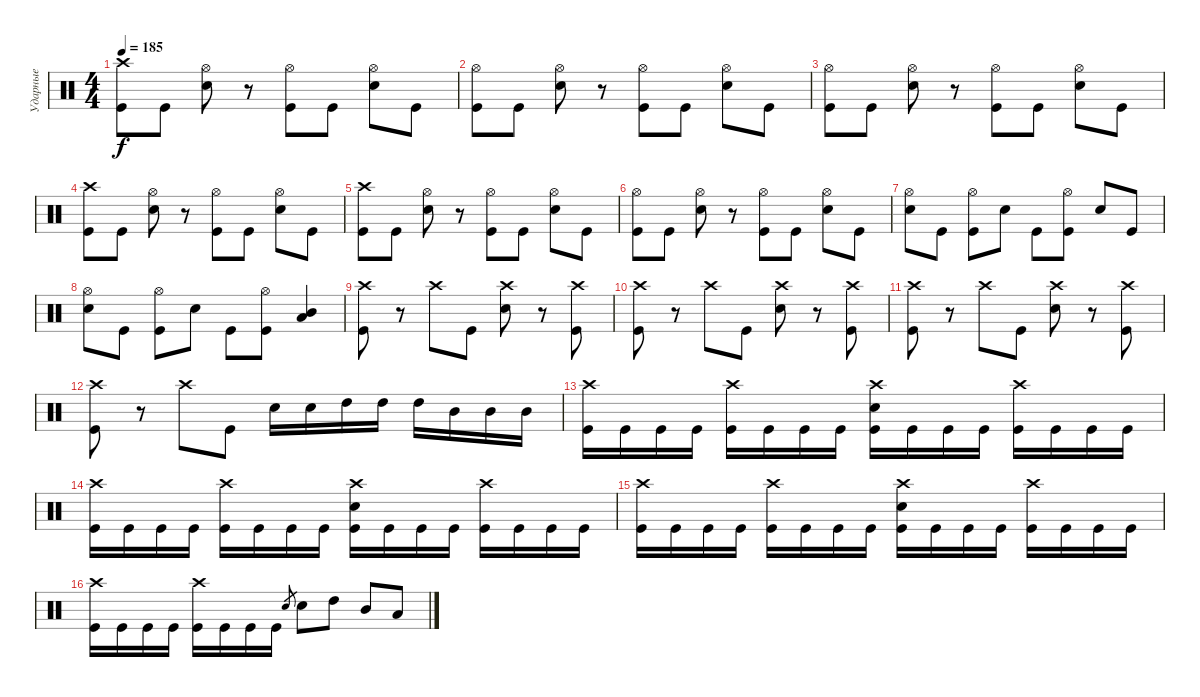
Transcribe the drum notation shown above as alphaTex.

\track ("Ударные" "Ударные") {instrument percussion}
\staff {score}
\articulation defaults
\ts (4 4)
\tempo 185
\clef neutral
\ks c
("Crash high (hit)" "Kick (hit)").8{dy f} "Kick (hit)".8 ("Hi-Hat (open)" "Snare (hit) 2").8 r.8 ("Hi-Hat (open)" "Kick (hit)").8 "Kick (hit)".8 ("Hi-Hat (open)" "Snare (hit) 2").8 "Kick (hit)".8 |
("Hi-Hat (open)" "Kick (hit)").8 "Kick (hit)".8 ("Hi-Hat (open)" "Snare (hit) 2").8 r.8 ("Hi-Hat (open)" "Kick (hit)").8 "Kick (hit)".8 ("Hi-Hat (open)" "Snare (hit) 2").8 "Kick (hit)".8 |
("Hi-Hat (open)" "Kick (hit)").8 "Kick (hit)".8 ("Hi-Hat (open)" "Snare (hit) 2").8 r.8 ("Hi-Hat (open)" "Kick (hit)").8 "Kick (hit)".8 ("Hi-Hat (open)" "Snare (hit) 2").8 "Kick (hit)".8 |
("Crash high (hit)" "Kick (hit)").8 "Kick (hit)".8 ("Hi-Hat (open)" "Snare (hit) 2").8 r.8 ("Hi-Hat (open)" "Kick (hit)").8 "Kick (hit)".8 ("Hi-Hat (open)" "Snare (hit) 2").8 "Kick (hit)".8 |
("Crash high (hit)" "Kick (hit)").8 "Kick (hit)".8 ("Hi-Hat (open)" "Snare (hit) 2").8 r.8 ("Hi-Hat (open)" "Kick (hit)").8 "Kick (hit)".8 ("Hi-Hat (open)" "Snare (hit) 2").8 "Kick (hit)".8 |
("Hi-Hat (open)" "Kick (hit)").8 "Kick (hit)".8 ("Hi-Hat (open)" "Snare (hit) 2").8 r.8 ("Hi-Hat (open)" "Kick (hit)").8 "Kick (hit)".8 ("Hi-Hat (open)" "Snare (hit) 2").8 "Kick (hit)".8 |
("Hi-Hat (open)" "Snare (hit) 2").8 "Kick (hit)".8 ("Hi-Hat (open)" "Kick (hit)").8 "Snare (hit) 2".8 "Kick (hit)".8 ("Hi-Hat (open)" "Kick (hit)").8 "Snare (hit) 2".8 "Kick (hit)".8 |
("Hi-Hat (open)" "Snare (hit) 2").8 "Kick (hit)".8 ("Hi-Hat (open)" "Kick (hit)").8 "Snare (hit) 2".8 "Kick (hit)".8 ("Hi-Hat (open)" "Kick (hit)").8 ("Low Floor Tom (hit)" "Mid Tom (hit)").4 |
("Crash high (hit)" "Kick (hit)").8 r.8 "Crash high (hit)".8 "Kick (hit)".8 ("Crash high (hit)" "Snare (hit) 2").8 r.8 ("Crash high (hit)" "Kick (hit)").8 |
("Crash high (hit)" "Kick (hit)").8 r.8 "Crash high (hit)".8 "Kick (hit)".8 ("Crash high (hit)" "Snare (hit) 2").8 r.8 ("Crash high (hit)" "Kick (hit)").8 |
("Crash high (hit)" "Kick (hit)").8 r.8 "Crash high (hit)".8 "Kick (hit)".8 ("Crash high (hit)" "Snare (hit) 2").8 r.8 ("Crash high (hit)" "Kick (hit)").8 |
("Crash high (hit)" "Kick (hit)").8 r.8 "Crash high (hit)".8 "Kick (hit)".8 "Snare (hit) 2".16 "Snare (hit) 2".16 "High Tom (hit)".16 "High Tom (hit)".16 "High Tom (hit)".16 "Mid Tom (hit)".16 "Mid Tom (hit)".16 "Mid Tom (hit)".16 |
("Kick (hit)" "Crash high (hit)").16 "Kick (hit)".16 "Kick (hit)".16 "Kick (hit)".16 ("Kick (hit)" "Crash high (hit)").16 "Kick (hit)".16 "Kick (hit)".16 "Kick (hit)".16 ("Kick (hit)" "Snare (hit) 2" "Crash high (hit)").16 "Kick (hit)".16 "Kick (hit)".16 "Kick (hit)".16 ("Kick (hit)" "Crash high (hit)").16 "Kick (hit)".16 "Kick (hit)".16 "Kick (hit)".16 |
("Kick (hit)" "Crash high (hit)").16 "Kick (hit)".16 "Kick (hit)".16 "Kick (hit)".16 ("Kick (hit)" "Crash high (hit)").16 "Kick (hit)".16 "Kick (hit)".16 "Kick (hit)".16 ("Kick (hit)" "Snare (hit) 2" "Crash high (hit)").16 "Kick (hit)".16 "Kick (hit)".16 "Kick (hit)".16 ("Kick (hit)" "Crash high (hit)").16 "Kick (hit)".16 "Kick (hit)".16 "Kick (hit)".16 |
("Kick (hit)" "Crash high (hit)").16 "Kick (hit)".16 "Kick (hit)".16 "Kick (hit)".16 ("Kick (hit)" "Crash high (hit)").16 "Kick (hit)".16 "Kick (hit)".16 "Kick (hit)".16 ("Kick (hit)" "Snare (hit) 2" "Crash high (hit)").16 "Kick (hit)".16 "Kick (hit)".16 "Kick (hit)".16 ("Kick (hit)" "Crash high (hit)").16 "Kick (hit)".16 "Kick (hit)".16 "Kick (hit)".16 |
("Kick (hit)" "Crash high (hit)").16 "Kick (hit)".16 "Kick (hit)".16 "Kick (hit)".16 ("Kick (hit)" "Crash high (hit)").16 "Kick (hit)".16 "Kick (hit)".16 "Kick (hit)".16 "Snare (hit) 2".8{gr} "Snare (hit) 2".8 "High Tom (hit)".8 "Mid Tom (hit)".8 "Low Tom (hit)".8
